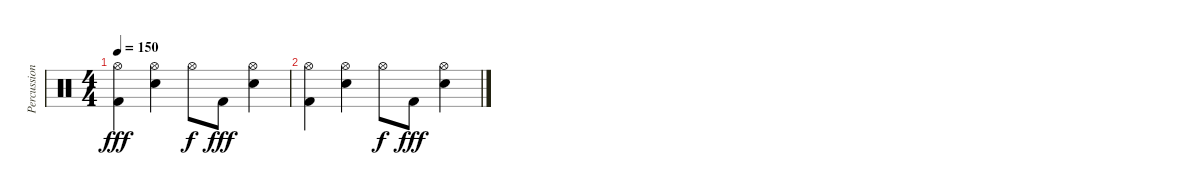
\track ("Percussions" "Percussion") {instrument percussion}
\staff {score}
\articulation defaults
\ts (4 4)
\tempo 150
\clef neutral
\ks c
("Hi-Hat (open)" "Kick (hit) 2").4{dy fff} ("Hi-Hat (open)" "Electric Snare (hit)").4 "Hi-Hat (open)".8{dy f} "Kick (hit) 2".8{dy fff} ("Hi-Hat (open)" "Electric Snare (hit)").4 |
("Hi-Hat (open)" "Kick (hit) 2").4 ("Hi-Hat (open)" "Electric Snare (hit)").4 "Hi-Hat (open)".8{dy f} "Kick (hit) 2".8{dy fff} ("Hi-Hat (open)" "Electric Snare (hit)").4
